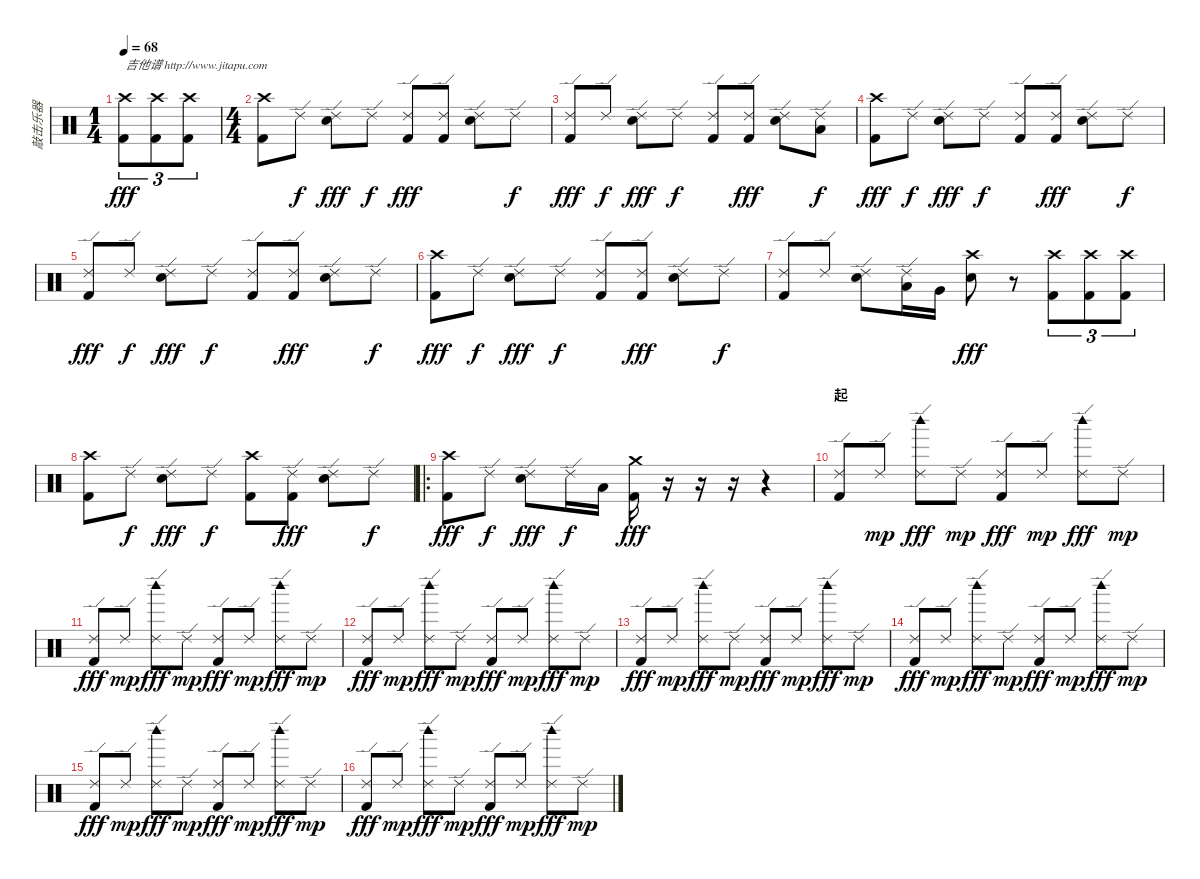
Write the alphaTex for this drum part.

\track ("敲击乐器" "敲击乐器") {instrument percussion}
\staff {score}
\articulation defaults
\ts (1 4)
\tempo 68
\clef neutral
\ks c
("Crash high (hit)" "Kick (hit) 2").8{tu (3 2) txt "吉他谱 http://www.jitapu.com" dy fff} ("Crash high (hit)" "Kick (hit) 2").8{tu (3 2)} ("Crash high (hit)" "Kick (hit) 2").8{tu (3 2)} |
\ts (4 4)
("Crash high (hit)" "Kick (hit) 2").8 "Ride (edge) 2".8{dy f} ("Ride (edge) 2" "Electric Snare (hit)").8{dy fff} "Ride (edge) 2".8{dy f} ("Ride (edge) 2" "Kick (hit) 2").8{dy fff} ("Ride (edge) 2" "Kick (hit) 2").8 ("Ride (edge) 2" "Electric Snare (hit)").8 "Ride (edge) 2".8{dy f} |
("Ride (edge) 2" "Kick (hit) 2").8{dy fff} "Ride (edge) 2".8{dy f} ("Ride (edge) 2" "Electric Snare (hit)").8{dy fff} "Ride (edge) 2".8{dy f} ("Ride (edge) 2" "Kick (hit) 2").8 ("Ride (edge) 2" "Kick (hit) 2").8{dy fff} ("Ride (edge) 2" "Electric Snare (hit)").8 ("Ride (edge) 2" "Low Tom (hit)").8{dy f} |
("Crash high (hit)" "Kick (hit) 2").8{dy fff} "Ride (edge) 2".8{dy f} ("Ride (edge) 2" "Electric Snare (hit)").8{dy fff} "Ride (edge) 2".8{dy f} ("Ride (edge) 2" "Kick (hit) 2").8 ("Ride (edge) 2" "Kick (hit) 2").8{dy fff} ("Ride (edge) 2" "Electric Snare (hit)").8 "Ride (edge) 2".8{dy f} |
("Ride (edge) 2" "Kick (hit) 2").8{dy fff} "Ride (edge) 2".8{dy f} ("Ride (edge) 2" "Electric Snare (hit)").8{dy fff} "Ride (edge) 2".8{dy f} ("Ride (edge) 2" "Kick (hit) 2").8 ("Ride (edge) 2" "Kick (hit) 2").8{dy fff} ("Ride (edge) 2" "Electric Snare (hit)").8 "Ride (edge) 2".8{dy f} |
("Crash high (hit)" "Kick (hit) 2").8{dy fff} "Ride (edge) 2".8{dy f} ("Ride (edge) 2" "Electric Snare (hit)").8{dy fff} "Ride (edge) 2".8{dy f} ("Ride (edge) 2" "Kick (hit) 2").8 ("Ride (edge) 2" "Kick (hit) 2").8{dy fff} ("Ride (edge) 2" "Electric Snare (hit)").8 "Ride (edge) 2".8{dy f} |
("Ride (edge) 2" "Kick (hit) 2").8 "Ride (edge) 2".8 ("Ride (edge) 2" "Electric Snare (hit)").8 ("Ride (edge) 2" "Low Tom (hit)").16 "Very Low Tom (hit)".16 ("Crash high (hit)" "Electric Snare (hit)").8{dy fff} r.8 ("Crash high (hit)" "Kick (hit) 2").8{tu (3 2)} ("Crash high (hit)" "Kick (hit) 2").8{tu (3 2)} ("Crash high (hit)" "Kick (hit) 2").8{tu (3 2)} |
("Crash high (hit)" "Kick (hit) 2").8 "Ride (edge) 2".8{dy f} ("Ride (edge) 2" "Electric Snare (hit)").8{dy fff} "Ride (edge) 2".8{dy f} ("Crash high (hit)" "Kick (hit) 2").8 ("Ride (edge) 2" "Kick (hit) 2").8{dy fff} ("Ride (edge) 2" "Electric Snare (hit)").8 "Ride (edge) 2".8{dy f} |
\ro
("Crash high (hit)" "Kick (hit) 2").8{dy fff} "Ride (edge) 2".8{dy f} ("Ride (edge) 2" "Electric Snare (hit)").8{dy fff} "Ride (edge) 2".16{dy f} "Low Tom (hit)".16 ("Crash medium (hit)" "Kick (hit) 2").16{dy fff} r.16 r.16 r.16 r.4 |
\section ("" "起")
("Ride (edge) 2" "Kick (hit) 2").8 "Ride (edge) 2".8{dy mp} ("Ride (edge) 2" "Woodblock high (hit)").8{dy fff} "Ride (edge) 2".8{dy mp} ("Ride (edge) 2" "Kick (hit) 2").8{dy fff} "Ride (edge) 2".8{dy mp} ("Ride (edge) 2" "Woodblock high (hit)").8{dy fff} "Ride (edge) 2".8{dy mp} |
("Ride (edge) 2" "Kick (hit) 2").8{dy fff} "Ride (edge) 2".8{dy mp} ("Ride (edge) 2" "Woodblock high (hit)").8{dy fff} "Ride (edge) 2".8{dy mp} ("Ride (edge) 2" "Kick (hit) 2").8{dy fff} "Ride (edge) 2".8{dy mp} ("Ride (edge) 2" "Woodblock high (hit)").8{dy fff} "Ride (edge) 2".8{dy mp} |
("Ride (edge) 2" "Kick (hit) 2").8{dy fff} "Ride (edge) 2".8{dy mp} ("Ride (edge) 2" "Woodblock high (hit)").8{dy fff} "Ride (edge) 2".8{dy mp} ("Ride (edge) 2" "Kick (hit) 2").8{dy fff} "Ride (edge) 2".8{dy mp} ("Ride (edge) 2" "Woodblock high (hit)").8{dy fff} "Ride (edge) 2".8{dy mp} |
("Ride (edge) 2" "Kick (hit) 2").8{dy fff} "Ride (edge) 2".8{dy mp} ("Ride (edge) 2" "Woodblock high (hit)").8{dy fff} "Ride (edge) 2".8{dy mp} ("Ride (edge) 2" "Kick (hit) 2").8{dy fff} "Ride (edge) 2".8{dy mp} ("Ride (edge) 2" "Woodblock high (hit)").8{dy fff} "Ride (edge) 2".8{dy mp} |
("Ride (edge) 2" "Kick (hit) 2").8{dy fff} "Ride (edge) 2".8{dy mp} ("Ride (edge) 2" "Woodblock high (hit)").8{dy fff} "Ride (edge) 2".8{dy mp} ("Ride (edge) 2" "Kick (hit) 2").8{dy fff} "Ride (edge) 2".8{dy mp} ("Ride (edge) 2" "Woodblock high (hit)").8{dy fff} "Ride (edge) 2".8{dy mp} |
("Ride (edge) 2" "Kick (hit) 2").8{dy fff} "Ride (edge) 2".8{dy mp} ("Ride (edge) 2" "Woodblock high (hit)").8{dy fff} "Ride (edge) 2".8{dy mp} ("Ride (edge) 2" "Kick (hit) 2").8{dy fff} "Ride (edge) 2".8{dy mp} ("Ride (edge) 2" "Woodblock high (hit)").8{dy fff} "Ride (edge) 2".8{dy mp} |
("Ride (edge) 2" "Kick (hit) 2").8{dy fff} "Ride (edge) 2".8{dy mp} ("Ride (edge) 2" "Woodblock high (hit)").8{dy fff} "Ride (edge) 2".8{dy mp} ("Ride (edge) 2" "Kick (hit) 2").8{dy fff} "Ride (edge) 2".8{dy mp} ("Ride (edge) 2" "Woodblock high (hit)").8{dy fff} "Ride (edge) 2".8{dy mp}
